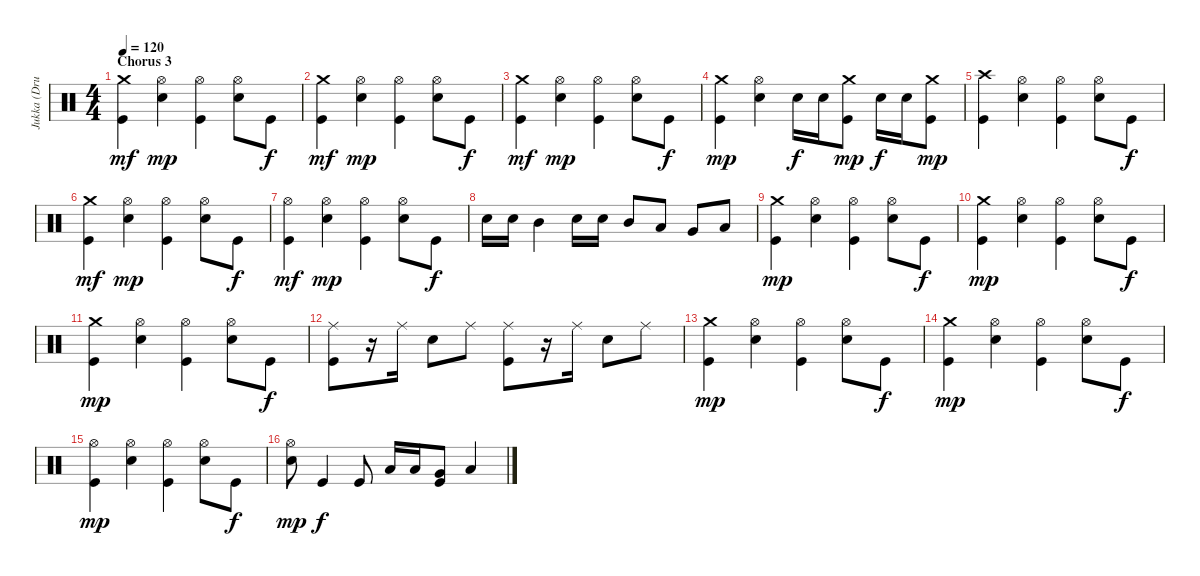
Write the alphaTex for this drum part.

\track ("Jukka (Drums)" "Jukka (Dru") {instrument percussion}
\staff {score}
\articulation defaults
\ts (4 4)
\section ("" "Chorus 3")
\tempo 120
\clef neutral
\ks c
("Crash medium (hit)" "Kick (hit)").4{dy mf} ("Hi-Hat (open)" "Electric Snare (hit)").4{dy mp} ("Hi-Hat (open)" "Kick (hit)").4 ("Hi-Hat (open)" "Electric Snare (hit)").8 "Kick (hit)".8{dy f} |
("Crash medium (hit)" "Kick (hit)").4{dy mf} ("Hi-Hat (open)" "Electric Snare (hit)").4{dy mp} ("Hi-Hat (open)" "Kick (hit)").4 ("Hi-Hat (open)" "Electric Snare (hit)").8 "Kick (hit)".8{dy f} |
("Crash medium (hit)" "Kick (hit)").4{dy mf} ("Hi-Hat (open)" "Electric Snare (hit)").4{dy mp} ("Hi-Hat (open)" "Kick (hit)").4 ("Hi-Hat (open)" "Electric Snare (hit)").8 "Kick (hit)".8{dy f} |
("Crash medium (hit)" "Kick (hit)").4{dy mp} ("Hi-Hat (open)" "Electric Snare (hit)").4 "Electric Snare (hit)".16{dy f} "Electric Snare (hit)".16 ("Crash medium (hit)" "Kick (hit)").8{dy mp} "Electric Snare (hit)".16{dy f} "Electric Snare (hit)".16 ("Crash medium (hit)" "Kick (hit)").8{dy mp} |
("Crash high (hit)" "Kick (hit)").4 ("Hi-Hat (open)" "Electric Snare (hit)").4 ("Hi-Hat (open)" "Kick (hit)").4 ("Hi-Hat (open)" "Electric Snare (hit)").8 "Kick (hit)".8{dy f} |
("Crash medium (hit)" "Kick (hit)").4{dy mf} ("Hi-Hat (open)" "Electric Snare (hit)").4{dy mp} ("Hi-Hat (open)" "Kick (hit)").4 ("Hi-Hat (open)" "Electric Snare (hit)").8 "Kick (hit)".8{dy f} |
("Hi-Hat (open)" "Kick (hit)").4{dy mf} ("Hi-Hat (open)" "Electric Snare (hit)").4{dy mp} ("Hi-Hat (open)" "Kick (hit)").4 ("Hi-Hat (open)" "Electric Snare (hit)").8 "Kick (hit)".8{dy f} |
"Electric Snare (hit)".16 "Electric Snare (hit)".16 "Mid Tom (hit)".4 "Electric Snare (hit)".16 "Electric Snare (hit)".16 "Mid Tom (hit)".8 "Low Tom (hit)".8 "Very Low Tom (hit)".8 "Low Floor Tom (hit)".8 |
("Crash medium (hit)" "Kick (hit)").4{dy mp} ("Hi-Hat (open)" "Electric Snare (hit)").4 ("Hi-Hat (open)" "Kick (hit)").4 ("Hi-Hat (open)" "Electric Snare (hit)").8 "Kick (hit)".8{dy f} |
("Crash medium (hit)" "Kick (hit)").4{dy mp} ("Hi-Hat (open)" "Electric Snare (hit)").4 ("Hi-Hat (open)" "Kick (hit)").4 ("Hi-Hat (open)" "Electric Snare (hit)").8 "Kick (hit)".8{dy f} |
("Crash medium (hit)" "Kick (hit)").4{dy mp} ("Hi-Hat (open)" "Electric Snare (hit)").4 ("Hi-Hat (open)" "Kick (hit)").4 ("Hi-Hat (open)" "Electric Snare (hit)").8 "Kick (hit)".8{dy f} |
("Ride (middle)" "Kick (hit)").8 r.16 "Ride (middle)".16 "Electric Snare (hit)".8 "Ride (middle)".8 ("Ride (middle)" "Kick (hit)").8 r.16 "Ride (middle)".16 "Electric Snare (hit)".8 "Ride (middle)".8 |
("Crash medium (hit)" "Kick (hit)").4{dy mp} ("Hi-Hat (open)" "Electric Snare (hit)").4 ("Hi-Hat (open)" "Kick (hit)").4 ("Hi-Hat (open)" "Electric Snare (hit)").8 "Kick (hit)".8{dy f} |
("Crash medium (hit)" "Kick (hit)").4{dy mp} ("Hi-Hat (open)" "Electric Snare (hit)").4 ("Hi-Hat (open)" "Kick (hit)").4 ("Hi-Hat (open)" "Electric Snare (hit)").8 "Kick (hit)".8{dy f} |
("Hi-Hat (open)" "Kick (hit)").4{dy mp} ("Hi-Hat (open)" "Electric Snare (hit)").4 ("Hi-Hat (open)" "Kick (hit)").4 ("Hi-Hat (open)" "Electric Snare (hit)").8 "Kick (hit)".8{dy f} |
("Hi-Hat (open)" "Electric Snare (hit)").8{dy mp} "Kick (hit)".4{dy f} "Kick (hit)".8 "Low Tom (hit)".16 "Low Tom (hit)".16 ("Very Low Tom (hit)" "Kick (hit)").8 "Low Floor Tom (hit)".4
